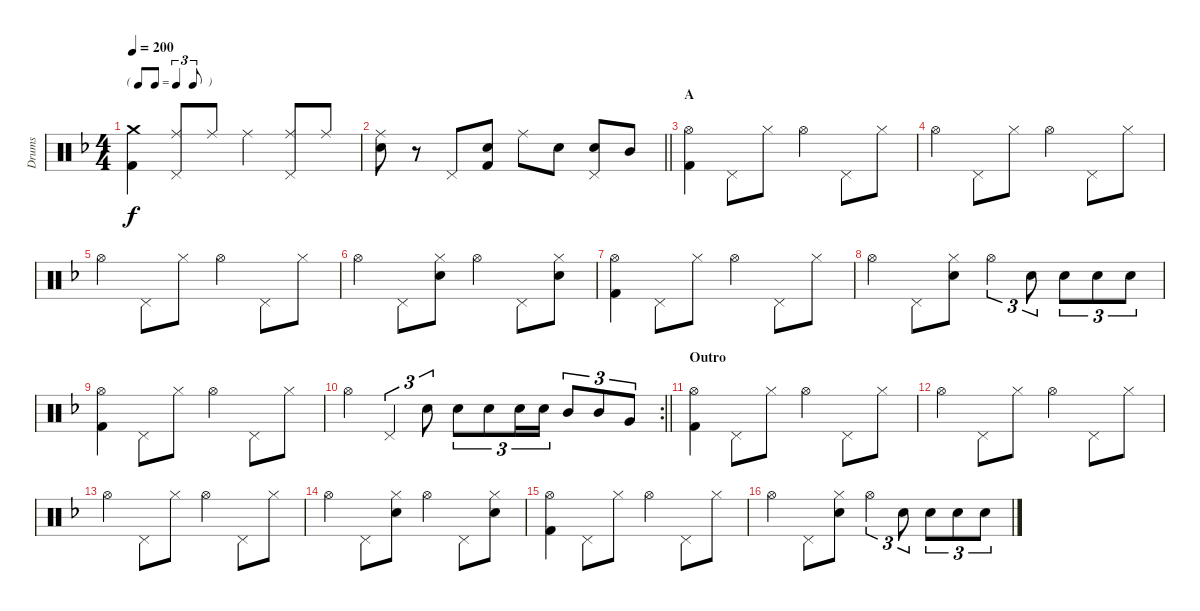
\track ("Drums" "Drums") {instrument percussion}
\staff {score}
\articulation defaults
\ts (4 4)
\tf triplet8th
\tempo 200
\clef neutral
\ks f
("Crash medium (hit)" "Kick (hit) 2").4{dy f} ("Ride (middle)" "Pedal Hi-Hat (hit)").8 "Ride (middle)".8 "Ride (middle)".4 ("Ride (middle)" "Pedal Hi-Hat (hit)").8 "Ride (middle)".8 |
\barLineRight lightlight
("Ride (middle)" "Snare (hit) 2").8 r.8 "Pedal Hi-Hat (hit)".8 ("Snare (hit) 2" "Kick (hit) 2").8 "Ride (middle)".8 "Snare (hit) 2".8 ("Pedal Hi-Hat (hit)" "Snare (hit) 2").8 "Mid Tom (hit)".8 |
\section ("" "A")
("Hi-Hat (open)" "Kick (hit) 2").4 "Pedal Hi-Hat (hit)".8 "Hi-Hat (closed)".8 "Hi-Hat (open)".4 "Pedal Hi-Hat (hit)".8 "Hi-Hat (closed)".8 |
"Hi-Hat (open)".4 "Pedal Hi-Hat (hit)".8 "Hi-Hat (closed)".8 "Hi-Hat (open)".4 "Pedal Hi-Hat (hit)".8 "Hi-Hat (closed)".8 |
"Hi-Hat (open)".4 "Pedal Hi-Hat (hit)".8 "Hi-Hat (closed)".8 "Hi-Hat (open)".4 "Pedal Hi-Hat (hit)".8 "Hi-Hat (closed)".8 |
"Hi-Hat (open)".4 "Pedal Hi-Hat (hit)".8 ("Hi-Hat (closed)" "Snare (hit) 2").8 "Hi-Hat (open)".4 "Pedal Hi-Hat (hit)".8 ("Hi-Hat (closed)" "Snare (hit) 2").8 |
("Hi-Hat (open)" "Kick (hit) 2").4 "Pedal Hi-Hat (hit)".8 "Hi-Hat (closed)".8 "Hi-Hat (open)".4 "Pedal Hi-Hat (hit)".8 "Hi-Hat (closed)".8 |
"Hi-Hat (open)".4 "Pedal Hi-Hat (hit)".8 ("Hi-Hat (closed)" "Snare (hit) 2").8 "Hi-Hat (open)".4{tu (3 2)} "Snare (hit) 2".8{tu (3 2)} "Snare (hit) 2".8{tu (3 2)} "Snare (hit) 2".8{tu (3 2)} "Snare (hit) 2".8{tu (3 2)} |
("Hi-Hat (open)" "Kick (hit) 2").4 "Pedal Hi-Hat (hit)".8 "Hi-Hat (closed)".8 "Hi-Hat (open)".4 "Pedal Hi-Hat (hit)".8 "Hi-Hat (closed)".8 |
\rc 2
\barLineRight lightlight "Hi-Hat (open)".4 "Pedal Hi-Hat (hit)".4{tu (3 2)} "Snare (hit) 2".8{tu (3 2)} "Snare (hit) 2".8{tu (3 2)} "Snare (hit) 2".8{tu (3 2)} "Snare (hit) 2".16{tu (3 2)} "Snare (hit) 2".16{tu (3 2)} "Mid Tom (hit)".8{tu (3 2)} "Mid Tom (hit)".8{tu (3 2)} "Very Low Tom (hit)".8{tu (3 2)}
|
\section ("" "Outro")
("Hi-Hat (open)" "Kick (hit) 2").4 "Pedal Hi-Hat (hit)".8 "Hi-Hat (closed)".8 "Hi-Hat (open)".4 "Pedal Hi-Hat (hit)".8 "Hi-Hat (closed)".8 |
"Hi-Hat (open)".4 "Pedal Hi-Hat (hit)".8 "Hi-Hat (closed)".8 "Hi-Hat (open)".4 "Pedal Hi-Hat (hit)".8 "Hi-Hat (closed)".8 |
"Hi-Hat (open)".4 "Pedal Hi-Hat (hit)".8 "Hi-Hat (closed)".8 "Hi-Hat (open)".4 "Pedal Hi-Hat (hit)".8 "Hi-Hat (closed)".8 |
"Hi-Hat (open)".4 "Pedal Hi-Hat (hit)".8 ("Hi-Hat (closed)" "Snare (hit) 2").8 "Hi-Hat (open)".4 "Pedal Hi-Hat (hit)".8 ("Hi-Hat (closed)" "Snare (hit) 2").8 |
("Hi-Hat (open)" "Kick (hit) 2").4 "Pedal Hi-Hat (hit)".8 "Hi-Hat (closed)".8 "Hi-Hat (open)".4 "Pedal Hi-Hat (hit)".8 "Hi-Hat (closed)".8 |
"Hi-Hat (open)".4 "Pedal Hi-Hat (hit)".8 ("Hi-Hat (closed)" "Snare (hit) 2").8 "Hi-Hat (open)".4{tu (3 2)} "Snare (hit) 2".8{tu (3 2)} "Snare (hit) 2".8{tu (3 2)} "Snare (hit) 2".8{tu (3 2)} "Snare (hit) 2".8{tu (3 2)}
